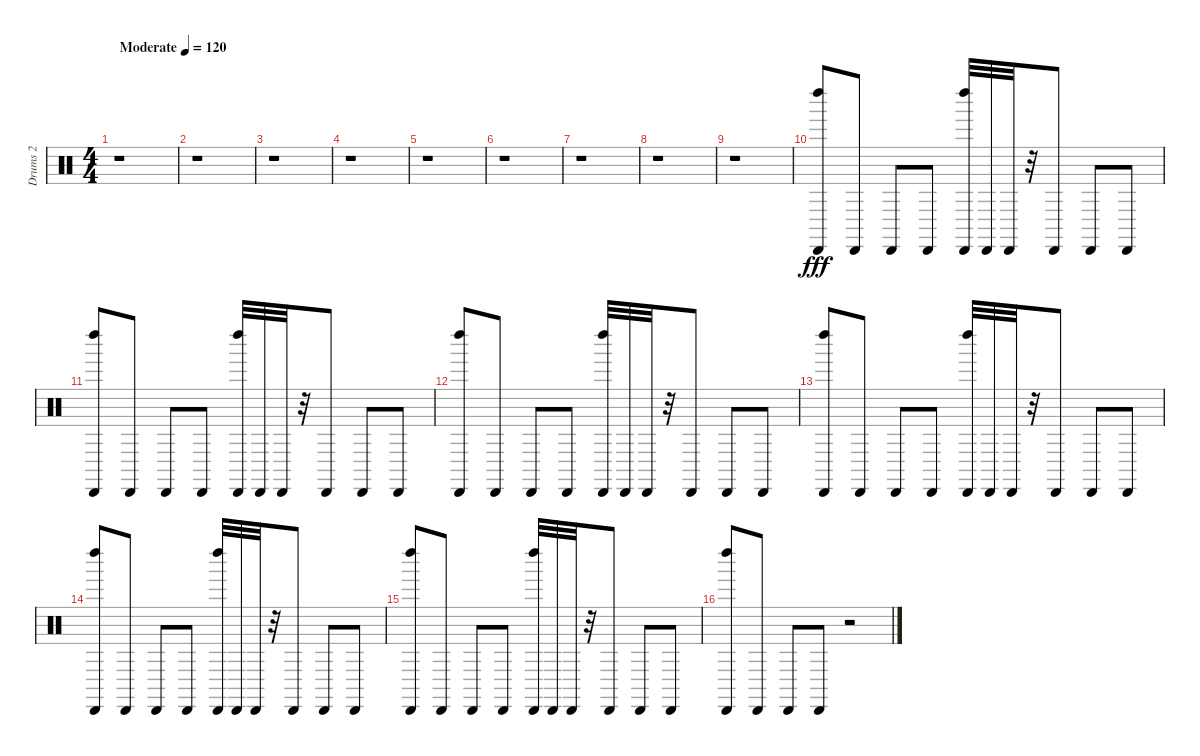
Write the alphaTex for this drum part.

\track ("Drums 2" "Drums 2") {instrument percussion}
\staff {score}
\articulation defaults
\ts (4 4)
\tempo (120 "Moderate")
\clef neutral
\ks c
r.1{dy fff} |
r.1 |
r.1 |
r.1 |
r.1 |
r.1 |
r.1 |
r.1 |
r.1 |
("Cabasa (hit)" "Left Maraca (hit)").8 "Cabasa (hit)".8 "Cabasa (hit)".8 "Cabasa (hit)".8 ("Cabasa (hit)" "Left Maraca (hit)").32 "Cabasa (hit)".32 "Cabasa (hit)".32 r.32 "Cabasa (hit)".8 "Cabasa (hit)".8 "Cabasa (hit)".8 |
("Cabasa (hit)" "Left Maraca (hit)").8 "Cabasa (hit)".8 "Cabasa (hit)".8 "Cabasa (hit)".8 ("Cabasa (hit)" "Left Maraca (hit)").32 "Cabasa (hit)".32 "Cabasa (hit)".32 r.32 "Cabasa (hit)".8 "Cabasa (hit)".8 "Cabasa (hit)".8 |
("Cabasa (hit)" "Left Maraca (hit)").8 "Cabasa (hit)".8 "Cabasa (hit)".8 "Cabasa (hit)".8 ("Cabasa (hit)" "Left Maraca (hit)").32 "Cabasa (hit)".32 "Cabasa (hit)".32 r.32 "Cabasa (hit)".8 "Cabasa (hit)".8 "Cabasa (hit)".8 |
("Cabasa (hit)" "Left Maraca (hit)").8 "Cabasa (hit)".8 "Cabasa (hit)".8 "Cabasa (hit)".8 ("Cabasa (hit)" "Left Maraca (hit)").32 "Cabasa (hit)".32 "Cabasa (hit)".32 r.32 "Cabasa (hit)".8 "Cabasa (hit)".8 "Cabasa (hit)".8 |
("Cabasa (hit)" "Left Maraca (hit)").8 "Cabasa (hit)".8 "Cabasa (hit)".8 "Cabasa (hit)".8 ("Cabasa (hit)" "Left Maraca (hit)").32 "Cabasa (hit)".32 "Cabasa (hit)".32 r.32 "Cabasa (hit)".8 "Cabasa (hit)".8 "Cabasa (hit)".8 |
("Cabasa (hit)" "Left Maraca (hit)").8 "Cabasa (hit)".8 "Cabasa (hit)".8 "Cabasa (hit)".8 ("Cabasa (hit)" "Left Maraca (hit)").32 "Cabasa (hit)".32 "Cabasa (hit)".32 r.32 "Cabasa (hit)".8 "Cabasa (hit)".8 "Cabasa (hit)".8 |
("Cabasa (hit)" "Left Maraca (hit)").8 "Cabasa (hit)".8 "Cabasa (hit)".8 "Cabasa (hit)".8 r.2
